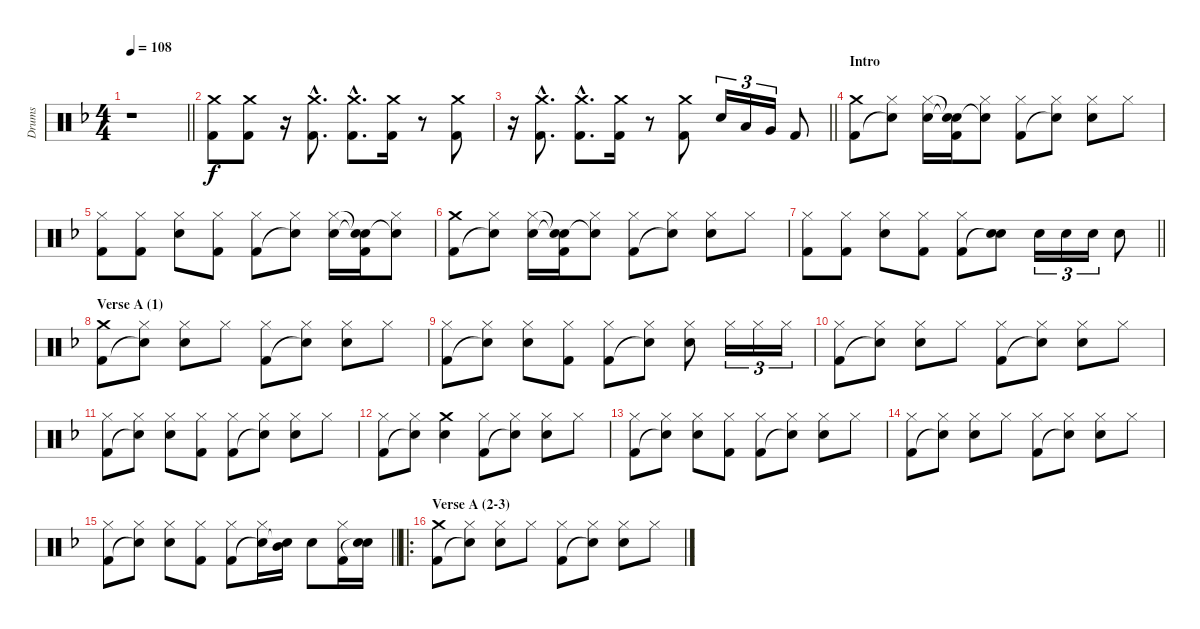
\track ("Drums" "Drums") {instrument percussion}
\staff {score}
\articulation defaults
\ts (4 4)
\tempo 108
\clef neutral
\barLineRight lightlight
\ks dminor
r.1{dy f} |
("Crash medium (hit)" "Kick (hit) 2").8 ("Crash medium (hit)" "Kick (hit) 2").8 r.16 ("Crash medium (hit)"{hac} "Kick (hit) 2"{hac}).8{d} ("Crash medium (hit)"{hac} "Kick (hit) 2"{hac}).8{d} ("Crash medium (hit)" "Kick (hit) 2").16 r.8 ("Crash medium (hit)" "Kick (hit) 2").8 |
\barLineRight lightlight
r.16 ("Crash medium (hit)"{hac} "Kick (hit) 2"{hac}).8{d} ("Crash medium (hit)"{hac} "Kick (hit) 2"{hac}).8{d} ("Crash medium (hit)" "Kick (hit) 2").16 r.8 ("Crash medium (hit)" "Kick (hit) 2").8 "Electric Snare (hit)".16{tu (3 2)} "Low Tom (hit)".16{tu (3 2)} "Very Low Tom (hit)".16{tu (3 2)} "Kick (hit) 2".8 |
\section ("" "Intro")
("Crash medium (hit)" "Kick (hit) 2").8 ("Hi-Hat (closed)" "Snare (hit)"{t}).8 ("Hi-Hat (closed)" "Electric Snare (hit)").16 ("Snare (hit)"{t} "Snare (hit)"{t} "Kick (hit) 2").16 ("Hi-Hat (closed)" "Snare (hit)"{t}).8 ("Hi-Hat (closed)" "Kick (hit) 2").8 ("Hi-Hat (closed)" "Snare (hit)"{t}).8 ("Hi-Hat (closed)" "Electric Snare (hit)").8 "Hi-Hat (closed)".8 |
("Hi-Hat (closed)" "Kick (hit) 2").8 ("Hi-Hat (closed)" "Kick (hit) 2").8 ("Hi-Hat (closed)" "Electric Snare (hit)").8 ("Hi-Hat (closed)" "Kick (hit) 2").8 ("Hi-Hat (closed)" "Kick (hit) 2").8 ("Hi-Hat (closed)" "Snare (hit)"{t}).8 ("Hi-Hat (closed)" "Electric Snare (hit)").16 ("Snare (hit)"{t} "Snare (hit)"{t} "Kick (hit) 2").16 ("Hi-Hat (closed)" "Snare (hit)"{t}).8 |
("Crash medium (hit)" "Kick (hit) 2").8 ("Hi-Hat (closed)" "Snare (hit)"{t}).8 ("Hi-Hat (closed)" "Electric Snare (hit)").16 ("Snare (hit)"{t} "Snare (hit)"{t} "Kick (hit) 2").16 ("Hi-Hat (closed)" "Snare (hit)"{t}).8 ("Hi-Hat (closed)" "Kick (hit) 2").8 ("Hi-Hat (closed)" "Snare (hit)"{t}).8 ("Hi-Hat (closed)" "Electric Snare (hit)").8 "Hi-Hat (closed)".8 |
\barLineRight lightlight
("Hi-Hat (closed)" "Kick (hit) 2").8 ("Hi-Hat (closed)" "Kick (hit) 2").8 ("Hi-Hat (closed)" "Electric Snare (hit)").8 ("Hi-Hat (closed)" "Kick (hit) 2").8 ("Hi-Hat (closed)" "Kick (hit) 2").8 ("Electric Snare (hit)" "Snare (hit)"{t}).8 "Electric Snare (hit)".16{tu (3 2)} "Electric Snare (hit)".16{tu (3 2)} "Electric Snare (hit)".16{tu (3 2)} "Electric Snare (hit)".8 |
\section ("" "Verse A (1)")
("Crash medium (hit)" "Kick (hit) 2").8 ("Hi-Hat (closed)" "Snare (hit)"{t}).8 ("Hi-Hat (closed)" "Electric Snare (hit)").8 "Hi-Hat (closed)".8 ("Hi-Hat (closed)" "Kick (hit) 2").8 ("Hi-Hat (closed)" "Snare (hit)"{t}).8 ("Hi-Hat (closed)" "Electric Snare (hit)").8 "Hi-Hat (closed)".8 |
("Hi-Hat (closed)" "Kick (hit) 2").8 ("Hi-Hat (closed)" "Snare (hit)"{t}).8 ("Hi-Hat (closed)" "Electric Snare (hit)").8 ("Hi-Hat (closed)" "Kick (hit) 2").8 ("Hi-Hat (closed)" "Kick (hit) 2").8 ("Hi-Hat (closed)" "Snare (hit)"{t}).8 ("Hi-Hat (closed)" "Electric Snare (hit)").8 "Hi-Hat (closed)".16{tu (3 2)} "Hi-Hat (closed)".16{tu (3 2)} "Hi-Hat (closed)".16{tu (3 2)} |
("Hi-Hat (closed)" "Kick (hit) 2").8 ("Hi-Hat (closed)" "Snare (hit)"{t}).8 ("Hi-Hat (closed)" "Electric Snare (hit)").8 "Hi-Hat (closed)".8 ("Hi-Hat (closed)" "Kick (hit) 2").8 ("Hi-Hat (closed)" "Snare (hit)"{t}).8 ("Hi-Hat (closed)" "Electric Snare (hit)").8 "Hi-Hat (closed)".8 |
("Hi-Hat (closed)" "Kick (hit) 2").8 ("Hi-Hat (closed)" "Snare (hit)"{t}).8 ("Hi-Hat (closed)" "Electric Snare (hit)").8 ("Hi-Hat (closed)" "Kick (hit) 2").8 ("Hi-Hat (closed)" "Kick (hit) 2").8 ("Hi-Hat (closed)" "Snare (hit)"{t}).8 ("Hi-Hat (closed)" "Electric Snare (hit)").8 "Hi-Hat (closed)".8 |
("Hi-Hat (closed)" "Kick (hit) 2").8 ("Hi-Hat (closed)" "Snare (hit)"{t}).8 ("Crash medium (hit)" "Electric Snare (hit)").4 ("Hi-Hat (closed)" "Kick (hit) 2").8 ("Hi-Hat (closed)" "Snare (hit)"{t}).8 ("Hi-Hat (closed)" "Electric Snare (hit)").8 "Hi-Hat (closed)".8 |
("Hi-Hat (closed)" "Kick (hit) 2").8 ("Hi-Hat (closed)" "Snare (hit)"{t}).8 ("Hi-Hat (closed)" "Electric Snare (hit)").8 ("Hi-Hat (closed)" "Kick (hit) 2").8 ("Hi-Hat (closed)" "Kick (hit) 2").8 ("Hi-Hat (closed)" "Snare (hit)"{t}).8 ("Hi-Hat (closed)" "Electric Snare (hit)").8 "Hi-Hat (closed)".8 |
("Hi-Hat (closed)" "Kick (hit) 2").8 ("Hi-Hat (closed)" "Snare (hit)"{t}).8 ("Hi-Hat (closed)" "Electric Snare (hit)").8 "Hi-Hat (closed)".8 ("Hi-Hat (closed)" "Kick (hit) 2").8 ("Hi-Hat (closed)" "Snare (hit)"{t}).8 ("Hi-Hat (closed)" "Electric Snare (hit)").8 "Hi-Hat (closed)".8 |
\barLineRight lightlight
("Hi-Hat (closed)" "Kick (hit) 2").8 ("Hi-Hat (closed)" "Snare (hit)"{t}).8 ("Hi-Hat (closed)" "Electric Snare (hit)").8 ("Hi-Hat (closed)" "Kick (hit) 2").8 ("Hi-Hat (closed)" "Kick (hit) 2").8 ("Hi-Hat (closed)" "Snare (hit)"{t}).16 ("Mid Tom (hit)" "Snare (hit)"{t}).16 "Electric Snare (hit)".8 ("Hi-Hat (closed)" "Kick (hit) 2").16 ("Electric Snare (hit)" "Snare (hit)"{t}).16 |
\ro
\section ("" "Verse A (2-3)")
("Crash medium (hit)" "Kick (hit) 2").8 ("Hi-Hat (closed)" "Snare (hit)"{t}).8 ("Hi-Hat (closed)" "Electric Snare (hit)").8 "Hi-Hat (closed)".8 ("Hi-Hat (closed)" "Kick (hit) 2").8 ("Hi-Hat (closed)" "Snare (hit)"{t}).8 ("Hi-Hat (closed)" "Electric Snare (hit)").8 "Hi-Hat (closed)".8
